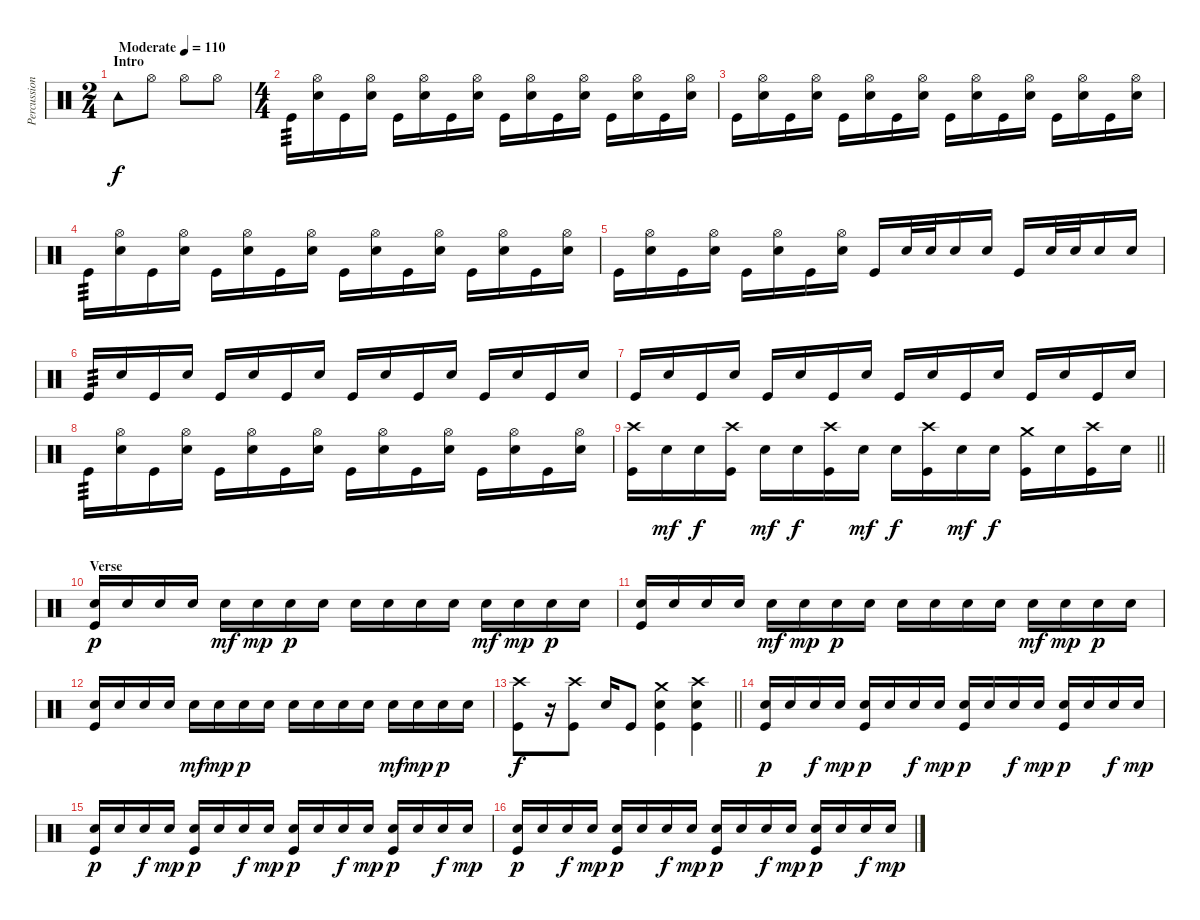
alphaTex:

\track ("Percussion" "Percussion") {instrument percussion}
\staff {score}
\articulation defaults
\ts (2 4)
\section ("" "Intro")
\tempo (110 "Moderate")
\clef neutral
\ks c "Tambourine (hit)".8{dy f} "Hi-Hat (open)".8 "Hi-Hat (open)".8 "Hi-Hat (open)".8
|
\ts (4 4)
"Kick (hit)".16{tp 3} ("Hi-Hat (open)" "Electric Snare (hit)").16 "Kick (hit)".16 ("Hi-Hat (open)" "Electric Snare (hit)").16 "Kick (hit)".16 ("Hi-Hat (open)" "Electric Snare (hit)").16 "Kick (hit)".16 ("Hi-Hat (open)" "Electric Snare (hit)").16 "Kick (hit)".16 ("Hi-Hat (open)" "Electric Snare (hit)").16 "Kick (hit)".16 ("Hi-Hat (open)" "Electric Snare (hit)").16 "Kick (hit)".16 ("Hi-Hat (open)" "Electric Snare (hit)").16 "Kick (hit)".16 ("Hi-Hat (open)" "Electric Snare (hit)").16 |
"Kick (hit)".16 ("Hi-Hat (open)" "Electric Snare (hit)").16 "Kick (hit)".16 ("Hi-Hat (open)" "Electric Snare (hit)").16 "Kick (hit)".16 ("Hi-Hat (open)" "Electric Snare (hit)").16 "Kick (hit)".16 ("Hi-Hat (open)" "Electric Snare (hit)").16 "Kick (hit)".16 ("Hi-Hat (open)" "Electric Snare (hit)").16 "Kick (hit)".16 ("Hi-Hat (open)" "Electric Snare (hit)").16 "Kick (hit)".16 ("Hi-Hat (open)" "Electric Snare (hit)").16 "Kick (hit)".16 ("Hi-Hat (open)" "Electric Snare (hit)").16 |
"Kick (hit)".16{tp 3} ("Hi-Hat (open)" "Electric Snare (hit)").16 "Kick (hit)".16 ("Hi-Hat (open)" "Electric Snare (hit)").16 "Kick (hit)".16 ("Hi-Hat (open)" "Electric Snare (hit)").16 "Kick (hit)".16 ("Hi-Hat (open)" "Electric Snare (hit)").16 "Kick (hit)".16 ("Hi-Hat (open)" "Electric Snare (hit)").16 "Kick (hit)".16 ("Hi-Hat (open)" "Electric Snare (hit)").16 "Kick (hit)".16 ("Hi-Hat (open)" "Electric Snare (hit)").16 "Kick (hit)".16 ("Hi-Hat (open)" "Electric Snare (hit)").16 |
"Kick (hit)".16 ("Hi-Hat (open)" "Electric Snare (hit)").16 "Kick (hit)".16 ("Hi-Hat (open)" "Electric Snare (hit)").16 "Kick (hit)".16 ("Hi-Hat (open)" "Electric Snare (hit)").16 "Kick (hit)".16 ("Hi-Hat (open)" "Electric Snare (hit)").16 "Kick (hit)".16 "Electric Snare (hit)".32 "Electric Snare (hit)".32 "Electric Snare (hit)".16 "Electric Snare (hit)".16 "Kick (hit)".16 "Electric Snare (hit)".32 "Electric Snare (hit)".32 "Electric Snare (hit)".16 "Electric Snare (hit)".16 |
"Kick (hit)".16{tp 3} "Electric Snare (hit)".16 "Kick (hit)".16 "Electric Snare (hit)".16 "Kick (hit)".16 "Electric Snare (hit)".16 "Kick (hit)".16 "Electric Snare (hit)".16 "Kick (hit)".16 "Electric Snare (hit)".16 "Kick (hit)".16 "Electric Snare (hit)".16 "Kick (hit)".16 "Electric Snare (hit)".16 "Kick (hit)".16 "Electric Snare (hit)".16 |
"Kick (hit)".16 "Electric Snare (hit)".16 "Kick (hit)".16 "Electric Snare (hit)".16 "Kick (hit)".16 "Electric Snare (hit)".16 "Kick (hit)".16 "Electric Snare (hit)".16 "Kick (hit)".16 "Electric Snare (hit)".16 "Kick (hit)".16 "Electric Snare (hit)".16 "Kick (hit)".16 "Electric Snare (hit)".16 "Kick (hit)".16 "Electric Snare (hit)".16 |
"Kick (hit)".16{tp 3} ("Hi-Hat (open)" "Electric Snare (hit)").16 "Kick (hit)".16 ("Hi-Hat (open)" "Electric Snare (hit)").16 "Kick (hit)".16 ("Hi-Hat (open)" "Electric Snare (hit)").16 "Kick (hit)".16 ("Hi-Hat (open)" "Electric Snare (hit)").16 "Kick (hit)".16 ("Hi-Hat (open)" "Electric Snare (hit)").16 "Kick (hit)".16 ("Hi-Hat (open)" "Electric Snare (hit)").16 "Kick (hit)".16 ("Hi-Hat (open)" "Electric Snare (hit)").16 "Kick (hit)".16 ("Hi-Hat (open)" "Electric Snare (hit)").16 |
\barLineRight lightlight
("Crash high (hit)" "Kick (hit)").16 "Electric Snare (hit)".16{dy mf} "Electric Snare (hit)".16{dy f} ("Crash high (hit)" "Kick (hit)").16 "Electric Snare (hit)".16{dy mf} "Electric Snare (hit)".16{dy f} ("Crash high (hit)" "Kick (hit)").16 "Electric Snare (hit)".16{dy mf} "Electric Snare (hit)".16{dy f} ("Crash high (hit)" "Kick (hit)").16 "Electric Snare (hit)".16{dy mf} "Electric Snare (hit)".16{dy f} ("Crash medium (hit)" "Kick (hit)").16 "Electric Snare (hit)".16 ("Crash high (hit)" "Kick (hit)").16 "Electric Snare (hit)".16 |
\section ("" "Verse")
("Electric Snare (hit)" "Kick (hit)").16{dy p} "Electric Snare (hit)".16 "Electric Snare (hit)".16 "Electric Snare (hit)".16 "Electric Snare (hit)".16{dy mf} "Electric Snare (hit)".16{dy mp} "Electric Snare (hit)".16{dy p} "Electric Snare (hit)".16 "Electric Snare (hit)".16 "Electric Snare (hit)".16 "Electric Snare (hit)".16 "Electric Snare (hit)".16 "Electric Snare (hit)".16{dy mf} "Electric Snare (hit)".16{dy mp} "Electric Snare (hit)".16{dy p} "Electric Snare (hit)".16 |
("Electric Snare (hit)" "Kick (hit)").16 "Electric Snare (hit)".16 "Electric Snare (hit)".16 "Electric Snare (hit)".16 "Electric Snare (hit)".16{dy mf} "Electric Snare (hit)".16{dy mp} "Electric Snare (hit)".16{dy p} "Electric Snare (hit)".16 "Electric Snare (hit)".16 "Electric Snare (hit)".16 "Electric Snare (hit)".16 "Electric Snare (hit)".16 "Electric Snare (hit)".16{dy mf} "Electric Snare (hit)".16{dy mp} "Electric Snare (hit)".16{dy p} "Electric Snare (hit)".16 |
("Electric Snare (hit)" "Kick (hit)").16 "Electric Snare (hit)".16 "Electric Snare (hit)".16 "Electric Snare (hit)".16 "Electric Snare (hit)".16{dy mf} "Electric Snare (hit)".16{dy mp} "Electric Snare (hit)".16{dy p} "Electric Snare (hit)".16 "Electric Snare (hit)".16 "Electric Snare (hit)".16 "Electric Snare (hit)".16 "Electric Snare (hit)".16 "Electric Snare (hit)".16{dy mf} "Electric Snare (hit)".16{dy mp} "Electric Snare (hit)".16{dy p} "Electric Snare (hit)".16 |
\barLineRight lightlight
("Crash high (hit)" "Kick (hit)").8{dy f} r.16 ("Crash high (hit)" "Kick (hit)").8 "Electric Snare (hit)".16 "Kick (hit)".8 ("Crash medium (hit)" "Electric Snare (hit)" "Kick (hit)").4 ("Crash high (hit)" "Electric Snare (hit)" "Kick (hit)").4 |
("Electric Snare (hit)" "Kick (hit)").16{dy p} "Electric Snare (hit)".16 "Electric Snare (hit)".16{dy f} "Electric Snare (hit)".16{dy mp} ("Electric Snare (hit)" "Kick (hit)").16{dy p} "Electric Snare (hit)".16 "Electric Snare (hit)".16{dy f} "Electric Snare (hit)".16{dy mp} ("Electric Snare (hit)" "Kick (hit)").16{dy p} "Electric Snare (hit)".16 "Electric Snare (hit)".16{dy f} "Electric Snare (hit)".16{dy mp} ("Electric Snare (hit)" "Kick (hit)").16{dy p} "Electric Snare (hit)".16 "Electric Snare (hit)".16{dy f} "Electric Snare (hit)".16{dy mp} |
("Electric Snare (hit)" "Kick (hit)").16{dy p} "Electric Snare (hit)".16 "Electric Snare (hit)".16{dy f} "Electric Snare (hit)".16{dy mp} ("Electric Snare (hit)" "Kick (hit)").16{dy p} "Electric Snare (hit)".16 "Electric Snare (hit)".16{dy f} "Electric Snare (hit)".16{dy mp} ("Electric Snare (hit)" "Kick (hit)").16{dy p} "Electric Snare (hit)".16 "Electric Snare (hit)".16{dy f} "Electric Snare (hit)".16{dy mp} ("Electric Snare (hit)" "Kick (hit)").16{dy p} "Electric Snare (hit)".16 "Electric Snare (hit)".16{dy f} "Electric Snare (hit)".16{dy mp} |
("Electric Snare (hit)" "Kick (hit)").16{dy p} "Electric Snare (hit)".16 "Electric Snare (hit)".16{dy f} "Electric Snare (hit)".16{dy mp} ("Electric Snare (hit)" "Kick (hit)").16{dy p} "Electric Snare (hit)".16 "Electric Snare (hit)".16{dy f} "Electric Snare (hit)".16{dy mp} ("Electric Snare (hit)" "Kick (hit)").16{dy p} "Electric Snare (hit)".16 "Electric Snare (hit)".16{dy f} "Electric Snare (hit)".16{dy mp} ("Electric Snare (hit)" "Kick (hit)").16{dy p} "Electric Snare (hit)".16 "Electric Snare (hit)".16{dy f} "Electric Snare (hit)".16{dy mp}
